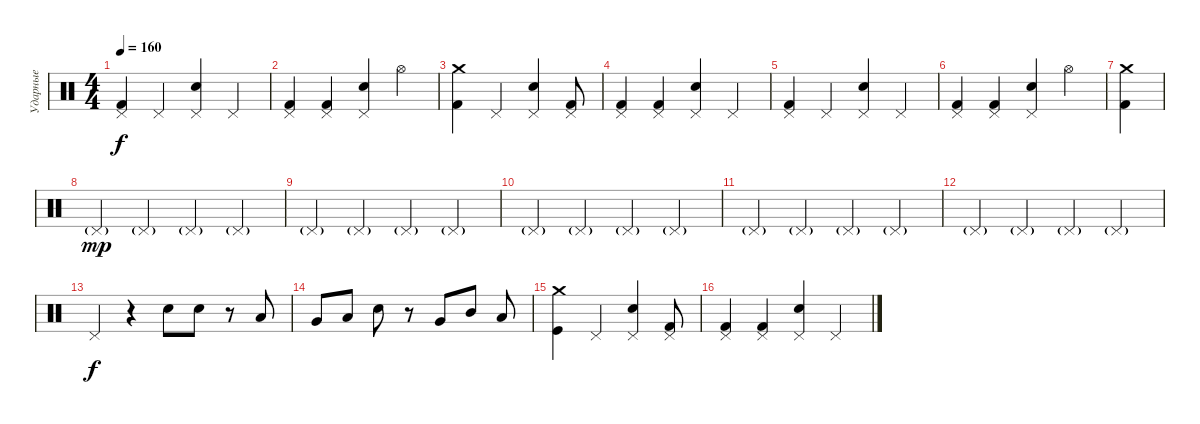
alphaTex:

\track ("Ударные" "Ударные") {instrument percussion}
\staff {score}
\articulation defaults
\ts (4 4)
\tempo 160
\clef neutral
\ks c
("Pedal Hi-Hat (hit)" "Kick (hit) 2").4{dy f} "Pedal Hi-Hat (hit)".4 ("Pedal Hi-Hat (hit)" "Snare (hit) 2").4 "Pedal Hi-Hat (hit)".4 |
("Pedal Hi-Hat (hit)" "Kick (hit) 2").4 ("Pedal Hi-Hat (hit)" "Kick (hit) 2").4 ("Pedal Hi-Hat (hit)" "Snare (hit) 2").4 "Hi-Hat (open)".4 |
("Crash medium (hit)" "Kick (hit) 2").4 "Pedal Hi-Hat (hit)".4 ("Pedal Hi-Hat (hit)" "Snare (hit) 2").4 ("Pedal Hi-Hat (hit)" "Kick (hit) 2").8 |
("Pedal Hi-Hat (hit)" "Kick (hit) 2").4 ("Pedal Hi-Hat (hit)" "Kick (hit) 2").4 ("Pedal Hi-Hat (hit)" "Snare (hit) 2").4 "Pedal Hi-Hat (hit)".4 |
("Pedal Hi-Hat (hit)" "Kick (hit) 2").4 "Pedal Hi-Hat (hit)".4 ("Pedal Hi-Hat (hit)" "Snare (hit) 2").4 "Pedal Hi-Hat (hit)".4 |
("Pedal Hi-Hat (hit)" "Kick (hit) 2").4 ("Pedal Hi-Hat (hit)" "Kick (hit) 2").4 ("Pedal Hi-Hat (hit)" "Snare (hit) 2").4 "Hi-Hat (open)".4 |
("Crash medium (hit)" "Kick (hit) 2").4 |
"Pedal Hi-Hat (hit)"{g}.4{dy mp} "Pedal Hi-Hat (hit)"{g}.4 "Pedal Hi-Hat (hit)"{g}.4 "Pedal Hi-Hat (hit)"{g}.4 |
"Pedal Hi-Hat (hit)"{g}.4 "Pedal Hi-Hat (hit)"{g}.4 "Pedal Hi-Hat (hit)"{g}.4 "Pedal Hi-Hat (hit)"{g}.4 |
"Pedal Hi-Hat (hit)"{g}.4 "Pedal Hi-Hat (hit)"{g}.4 "Pedal Hi-Hat (hit)"{g}.4 "Pedal Hi-Hat (hit)"{g}.4 |
"Pedal Hi-Hat (hit)"{g}.4 "Pedal Hi-Hat (hit)"{g}.4 "Pedal Hi-Hat (hit)"{g}.4 "Pedal Hi-Hat (hit)"{g}.4 |
"Pedal Hi-Hat (hit)"{g}.4 "Pedal Hi-Hat (hit)"{g}.4 "Pedal Hi-Hat (hit)"{g}.4 "Pedal Hi-Hat (hit)"{g}.4 |
"Pedal Hi-Hat (hit)".4{dy f} r.4 "Snare (hit) 2".8 "Snare (hit) 2".8 r.8 "Low Tom (hit)".8 |
"Very Low Tom (hit)".8 "Low Floor Tom (hit)".8 "Snare (hit) 2".8 r.8 "Very Low Tom (hit)".8 "Mid Tom (hit)".8 "Low Floor Tom (hit)".8 |
("Crash medium (hit)" "Kick (hit)").4 "Pedal Hi-Hat (hit)".4 ("Pedal Hi-Hat (hit)" "Snare (hit) 2").4 ("Pedal Hi-Hat (hit)" "Kick (hit) 2").8 |
("Pedal Hi-Hat (hit)" "Kick (hit) 2").4 ("Pedal Hi-Hat (hit)" "Kick (hit) 2").4 ("Pedal Hi-Hat (hit)" "Snare (hit) 2").4 "Pedal Hi-Hat (hit)".4
